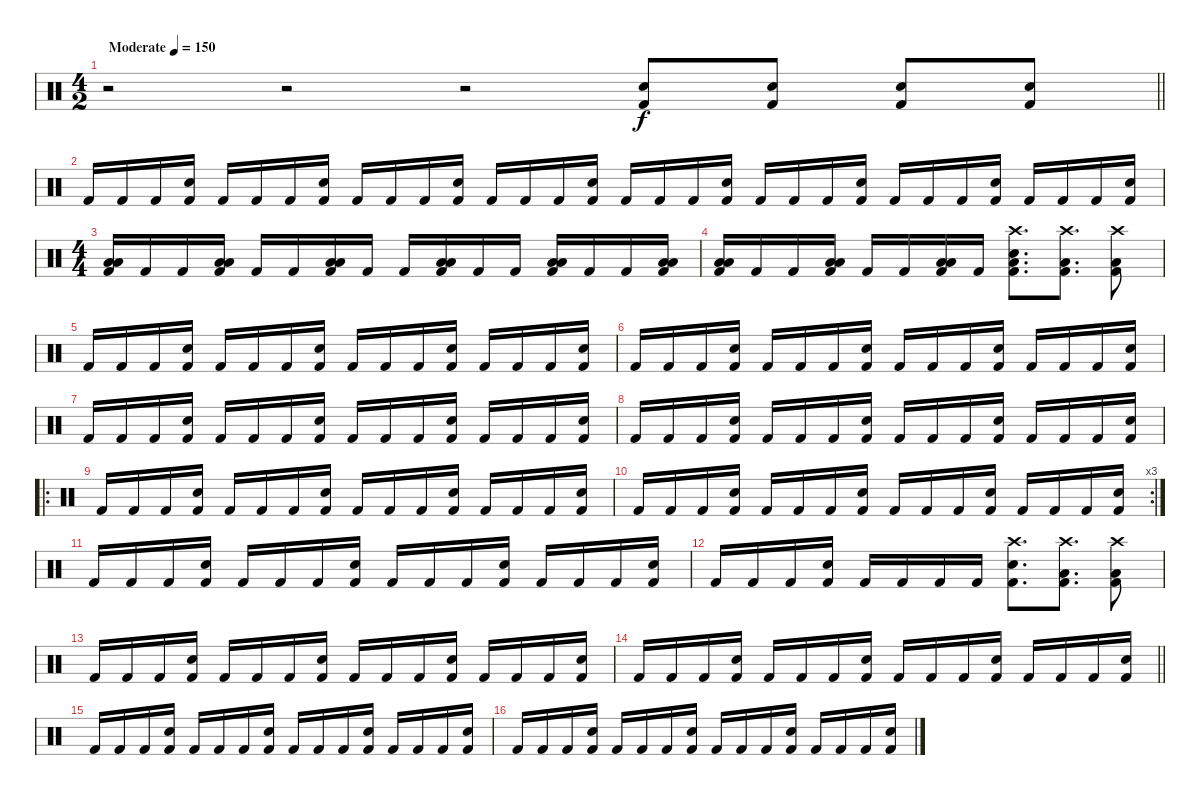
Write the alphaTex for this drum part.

\track "" {instrument percussion}
\staff {score}
\articulation defaults
\ts (4 2)
\tempo (150 "Moderate")
\clef neutral
\barLineRight lightlight
\ks c
r.2{dy f} r.2 r.2 ("Kick (hit) 2" "Snare (hit) 2").8 ("Kick (hit) 2" "Snare (hit) 2").8 ("Kick (hit) 2" "Snare (hit) 2").8 ("Kick (hit) 2" "Snare (hit) 2").8 |
"Kick (hit) 2".16 "Kick (hit) 2".16 "Kick (hit) 2".16 ("Kick (hit) 2" "Snare (hit) 2").16 "Kick (hit) 2".16 "Kick (hit) 2".16 "Kick (hit) 2".16 ("Kick (hit) 2" "Snare (hit) 2").16 "Kick (hit) 2".16 "Kick (hit) 2".16 "Kick (hit) 2".16 ("Kick (hit) 2" "Snare (hit) 2").16 "Kick (hit) 2".16 "Kick (hit) 2".16 "Kick (hit) 2".16 ("Kick (hit) 2" "Snare (hit) 2").16 "Kick (hit) 2".16 "Kick (hit) 2".16 "Kick (hit) 2".16 ("Kick (hit) 2" "Snare (hit) 2").16 "Kick (hit) 2".16 "Kick (hit) 2".16 "Kick (hit) 2".16 ("Kick (hit) 2" "Snare (hit) 2").16 "Kick (hit) 2".16 "Kick (hit) 2".16 "Kick (hit) 2".16 ("Kick (hit) 2" "Snare (hit) 2").16 "Kick (hit) 2".16 "Kick (hit) 2".16 "Kick (hit) 2".16 ("Kick (hit) 2" "Snare (hit) 2").16 |
\ts (4 4)
("Kick (hit) 2" "Low Tom (hit)" "Low Tom (hit)").16 "Kick (hit) 2".16 "Kick (hit) 2".16 ("Kick (hit) 2" "Low Tom (hit)" "Low Tom (hit)").16 "Kick (hit) 2".16 "Kick (hit) 2".16 ("Kick (hit) 2" "Low Tom (hit)" "Low Tom (hit)").16 "Kick (hit) 2".16 "Kick (hit) 2".16 ("Kick (hit) 2" "Low Tom (hit)" "Low Tom (hit)").16 "Kick (hit) 2".16 "Kick (hit) 2".16 ("Kick (hit) 2" "Low Tom (hit)" "Low Tom (hit)").16 "Kick (hit) 2".16 "Kick (hit) 2".16 ("Kick (hit) 2" "Low Tom (hit)" "Low Tom (hit)").16 |
("Kick (hit) 2" "Low Tom (hit)" "Low Tom (hit)").16 "Kick (hit) 2".16 "Kick (hit) 2".16 ("Kick (hit) 2" "Low Tom (hit)" "Low Tom (hit)").16 "Kick (hit) 2".16 "Kick (hit) 2".16 ("Kick (hit) 2" "Low Tom (hit)" "Low Tom (hit)").16 "Kick (hit) 2".16 ("Kick (hit) 2" "Low Tom (hit)" "Snare (hit) 2" "Crash high (hit)").8{d} ("Kick (hit) 2" "Low Tom (hit)" "Crash high (hit)").8{d} ("Kick (hit) 2" "Low Tom (hit)" "Crash high (hit)").8 |
"Kick (hit) 2".16 "Kick (hit) 2".16 "Kick (hit) 2".16 ("Kick (hit) 2" "Snare (hit) 2").16 "Kick (hit) 2".16 "Kick (hit) 2".16 "Kick (hit) 2".16 ("Kick (hit) 2" "Snare (hit) 2").16 "Kick (hit) 2".16 "Kick (hit) 2".16 "Kick (hit) 2".16 ("Kick (hit) 2" "Snare (hit) 2").16 "Kick (hit) 2".16 "Kick (hit) 2".16 "Kick (hit) 2".16 ("Kick (hit) 2" "Snare (hit) 2").16 |
"Kick (hit) 2".16 "Kick (hit) 2".16 "Kick (hit) 2".16 ("Kick (hit) 2" "Snare (hit) 2").16 "Kick (hit) 2".16 "Kick (hit) 2".16 "Kick (hit) 2".16 ("Kick (hit) 2" "Snare (hit) 2").16 "Kick (hit) 2".16 "Kick (hit) 2".16 "Kick (hit) 2".16 ("Kick (hit) 2" "Snare (hit) 2").16 "Kick (hit) 2".16 "Kick (hit) 2".16 "Kick (hit) 2".16 ("Kick (hit) 2" "Snare (hit) 2").16 |
"Kick (hit) 2".16 "Kick (hit) 2".16 "Kick (hit) 2".16 ("Kick (hit) 2" "Snare (hit) 2").16 "Kick (hit) 2".16 "Kick (hit) 2".16 "Kick (hit) 2".16 ("Kick (hit) 2" "Snare (hit) 2").16 "Kick (hit) 2".16 "Kick (hit) 2".16 "Kick (hit) 2".16 ("Kick (hit) 2" "Snare (hit) 2").16 "Kick (hit) 2".16 "Kick (hit) 2".16 "Kick (hit) 2".16 ("Kick (hit) 2" "Snare (hit) 2").16 |
"Kick (hit) 2".16 "Kick (hit) 2".16 "Kick (hit) 2".16 ("Kick (hit) 2" "Snare (hit) 2").16 "Kick (hit) 2".16 "Kick (hit) 2".16 "Kick (hit) 2".16 ("Kick (hit) 2" "Snare (hit) 2").16 "Kick (hit) 2".16 "Kick (hit) 2".16 "Kick (hit) 2".16 ("Kick (hit) 2" "Snare (hit) 2").16 "Kick (hit) 2".16 "Kick (hit) 2".16 "Kick (hit) 2".16 ("Kick (hit) 2" "Snare (hit) 2").16 |
\ro "Kick (hit) 2".16 "Kick (hit) 2".16 "Kick (hit) 2".16
("Kick (hit) 2" "Snare (hit) 2").16 "Kick (hit) 2".16 "Kick (hit) 2".16 "Kick (hit) 2".16 ("Kick (hit) 2" "Snare (hit) 2").16 "Kick (hit) 2".16 "Kick (hit) 2".16 "Kick (hit) 2".16 ("Kick (hit) 2" "Snare (hit) 2").16 "Kick (hit) 2".16 "Kick (hit) 2".16 "Kick (hit) 2".16 ("Kick (hit) 2" "Snare (hit) 2").16 |
\rc 3 "Kick (hit) 2".16 "Kick (hit) 2".16 "Kick (hit) 2".16
("Kick (hit) 2" "Snare (hit) 2").16 "Kick (hit) 2".16 "Kick (hit) 2".16 "Kick (hit) 2".16 ("Kick (hit) 2" "Snare (hit) 2").16 "Kick (hit) 2".16 "Kick (hit) 2".16 "Kick (hit) 2".16 ("Kick (hit) 2" "Snare (hit) 2").16 "Kick (hit) 2".16 "Kick (hit) 2".16 "Kick (hit) 2".16 ("Kick (hit) 2" "Snare (hit) 2").16 |
"Kick (hit) 2".16 "Kick (hit) 2".16 "Kick (hit) 2".16 ("Kick (hit) 2" "Snare (hit) 2").16 "Kick (hit) 2".16 "Kick (hit) 2".16 "Kick (hit) 2".16 ("Kick (hit) 2" "Snare (hit) 2").16 "Kick (hit) 2".16 "Kick (hit) 2".16 "Kick (hit) 2".16 ("Kick (hit) 2" "Snare (hit) 2").16 "Kick (hit) 2".16 "Kick (hit) 2".16 "Kick (hit) 2".16 ("Kick (hit) 2" "Snare (hit) 2").16 |
"Kick (hit) 2".16 "Kick (hit) 2".16 "Kick (hit) 2".16 ("Kick (hit) 2" "Snare (hit) 2").16 "Kick (hit) 2".16 "Kick (hit) 2".16 "Kick (hit) 2".16 "Kick (hit) 2".16 ("Kick (hit) 2" "Snare (hit) 2" "Crash high (hit)").8{d} ("Kick (hit) 2" "Low Tom (hit)" "Crash high (hit)").8{d} ("Kick (hit) 2" "Low Tom (hit)" "Crash high (hit)").8 |
"Kick (hit) 2".16 "Kick (hit) 2".16 "Kick (hit) 2".16 ("Kick (hit) 2" "Snare (hit) 2").16 "Kick (hit) 2".16 "Kick (hit) 2".16 "Kick (hit) 2".16 ("Kick (hit) 2" "Snare (hit) 2").16 "Kick (hit) 2".16 "Kick (hit) 2".16 "Kick (hit) 2".16 ("Kick (hit) 2" "Snare (hit) 2").16 "Kick (hit) 2".16 "Kick (hit) 2".16 "Kick (hit) 2".16 ("Kick (hit) 2" "Snare (hit) 2").16 |
\barLineRight lightlight "Kick (hit) 2".16 "Kick (hit) 2".16 "Kick (hit) 2".16
("Kick (hit) 2" "Snare (hit) 2").16 "Kick (hit) 2".16 "Kick (hit) 2".16 "Kick (hit) 2".16 ("Kick (hit) 2" "Snare (hit) 2").16 "Kick (hit) 2".16 "Kick (hit) 2".16 "Kick (hit) 2".16 ("Kick (hit) 2" "Snare (hit) 2").16 "Kick (hit) 2".16 "Kick (hit) 2".16 "Kick (hit) 2".16 ("Kick (hit) 2" "Snare (hit) 2").16 |
"Kick (hit) 2".16 "Kick (hit) 2".16 "Kick (hit) 2".16 ("Kick (hit) 2" "Snare (hit) 2").16 "Kick (hit) 2".16 "Kick (hit) 2".16 "Kick (hit) 2".16 ("Kick (hit) 2" "Snare (hit) 2").16 "Kick (hit) 2".16 "Kick (hit) 2".16 "Kick (hit) 2".16 ("Kick (hit) 2" "Snare (hit) 2").16 "Kick (hit) 2".16 "Kick (hit) 2".16 "Kick (hit) 2".16 ("Kick (hit) 2" "Snare (hit) 2").16 |
"Kick (hit) 2".16 "Kick (hit) 2".16 "Kick (hit) 2".16 ("Kick (hit) 2" "Snare (hit) 2").16 "Kick (hit) 2".16 "Kick (hit) 2".16 "Kick (hit) 2".16 ("Kick (hit) 2" "Snare (hit) 2").16 "Kick (hit) 2".16 "Kick (hit) 2".16 "Kick (hit) 2".16 ("Kick (hit) 2" "Snare (hit) 2").16 "Kick (hit) 2".16 "Kick (hit) 2".16 "Kick (hit) 2".16 ("Kick (hit) 2" "Snare (hit) 2").16
